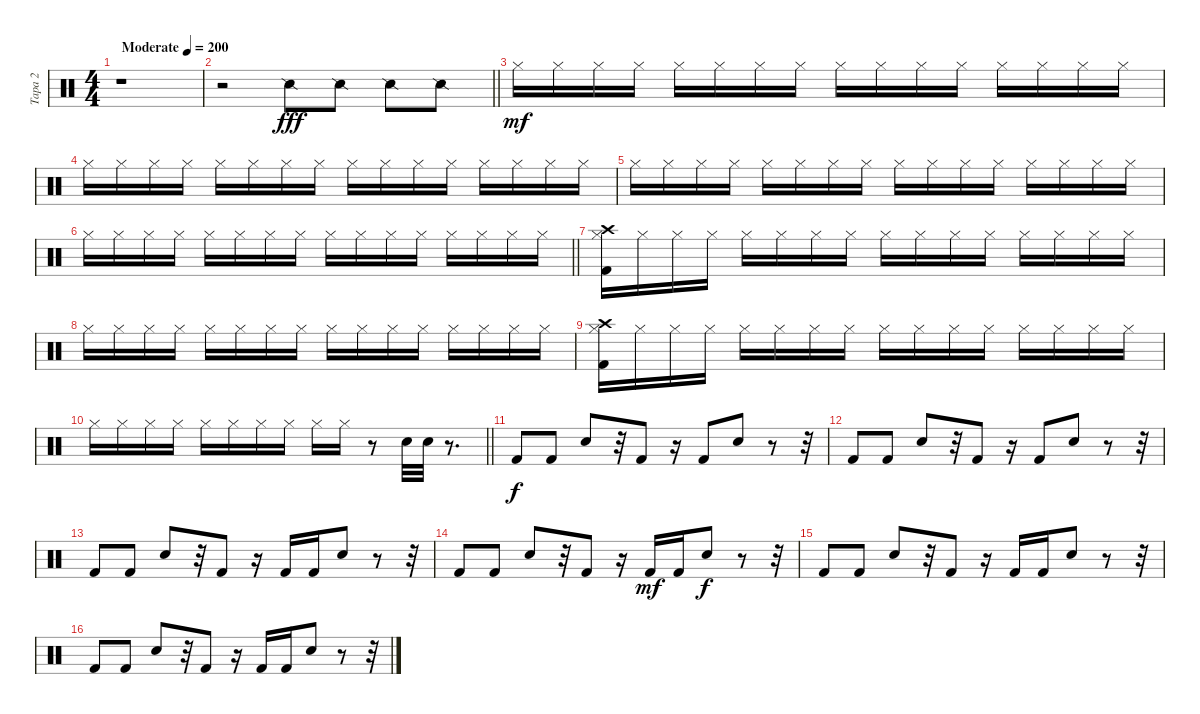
\track ("Tapa 2" "Tapa 2") {instrument percussion}
\staff {score}
\articulation defaults
\ts (4 4)
\tempo (200 "Moderate")
\clef neutral
\ks c
r.1{dy fff} |
\barLineRight lightlight
r.2 "Snare (side stick) 2".8 "Snare (side stick) 2".8 "Snare (side stick) 2".8 "Snare (side stick) 2".8 |
"Hi-Hat (closed)".16{dy mf} "Hi-Hat (closed)".16 "Hi-Hat (closed)".16 "Hi-Hat (closed)".16 "Hi-Hat (closed)".16 "Hi-Hat (closed)".16 "Hi-Hat (closed)".16 "Hi-Hat (closed)".16 "Hi-Hat (closed)".16 "Hi-Hat (closed)".16 "Hi-Hat (closed)".16 "Hi-Hat (closed)".16 "Hi-Hat (closed)".16 "Hi-Hat (closed)".16 "Hi-Hat (closed)".16 "Hi-Hat (closed)".16 |
"Hi-Hat (closed)".16 "Hi-Hat (closed)".16 "Hi-Hat (closed)".16 "Hi-Hat (closed)".16 "Hi-Hat (closed)".16 "Hi-Hat (closed)".16 "Hi-Hat (closed)".16 "Hi-Hat (closed)".16 "Hi-Hat (closed)".16 "Hi-Hat (closed)".16 "Hi-Hat (closed)".16 "Hi-Hat (closed)".16 "Hi-Hat (closed)".16 "Hi-Hat (closed)".16 "Hi-Hat (closed)".16 "Hi-Hat (closed)".16 |
"Hi-Hat (closed)".16 "Hi-Hat (closed)".16 "Hi-Hat (closed)".16 "Hi-Hat (closed)".16 "Hi-Hat (closed)".16 "Hi-Hat (closed)".16 "Hi-Hat (closed)".16 "Hi-Hat (closed)".16 "Hi-Hat (closed)".16 "Hi-Hat (closed)".16 "Hi-Hat (closed)".16 "Hi-Hat (closed)".16 "Hi-Hat (closed)".16 "Hi-Hat (closed)".16 "Hi-Hat (closed)".16 "Hi-Hat (closed)".16 |
\barLineRight lightlight "Hi-Hat (closed)".16 "Hi-Hat (closed)".16 "Hi-Hat (closed)".16 "Hi-Hat (closed)".16 "Hi-Hat (closed)".16 "Hi-Hat (closed)".16 "Hi-Hat (closed)".16 "Hi-Hat (closed)".16 "Hi-Hat (closed)".16 "Hi-Hat (closed)".16 "Hi-Hat (closed)".16 "Hi-Hat (closed)".16 "Hi-Hat (closed)".16 "Hi-Hat (closed)".16 "Hi-Hat (closed)".16 "Hi-Hat (closed)".16
|
("Hi-Hat (closed)" "Kick (hit) 2" "Crash high (hit)").16 "Hi-Hat (closed)".16 "Hi-Hat (closed)".16 "Hi-Hat (closed)".16 "Hi-Hat (closed)".16 "Hi-Hat (closed)".16 "Hi-Hat (closed)".16 "Hi-Hat (closed)".16 "Hi-Hat (closed)".16 "Hi-Hat (closed)".16 "Hi-Hat (closed)".16 "Hi-Hat (closed)".16 "Hi-Hat (closed)".16 "Hi-Hat (closed)".16 "Hi-Hat (closed)".16 "Hi-Hat (closed)".16 |
"Hi-Hat (closed)".16 "Hi-Hat (closed)".16 "Hi-Hat (closed)".16 "Hi-Hat (closed)".16 "Hi-Hat (closed)".16 "Hi-Hat (closed)".16 "Hi-Hat (closed)".16 "Hi-Hat (closed)".16 "Hi-Hat (closed)".16 "Hi-Hat (closed)".16 "Hi-Hat (closed)".16 "Hi-Hat (closed)".16 "Hi-Hat (closed)".16 "Hi-Hat (closed)".16 "Hi-Hat (closed)".16 "Hi-Hat (closed)".16 |
("Hi-Hat (closed)" "Crash high (hit)" "Kick (hit) 2").16 "Hi-Hat (closed)".16 "Hi-Hat (closed)".16 "Hi-Hat (closed)".16 "Hi-Hat (closed)".16 "Hi-Hat (closed)".16 "Hi-Hat (closed)".16 "Hi-Hat (closed)".16 "Hi-Hat (closed)".16 "Hi-Hat (closed)".16 "Hi-Hat (closed)".16 "Hi-Hat (closed)".16 "Hi-Hat (closed)".16 "Hi-Hat (closed)".16 "Hi-Hat (closed)".16 "Hi-Hat (closed)".16 |
\barLineRight lightlight "Hi-Hat (closed)".16 "Hi-Hat (closed)".16 "Hi-Hat (closed)".16 "Hi-Hat (closed)".16 "Hi-Hat (closed)".16 "Hi-Hat (closed)".16 "Hi-Hat (closed)".16 "Hi-Hat (closed)".16 "Hi-Hat (closed)".16 "Hi-Hat (closed)".16
r.8 "Snare (hit) 2".32 "Snare (hit) 2".32 r.8{d} |
"Kick (hit) 2".8{dy f} "Kick (hit) 2".8 "Snare (hit) 2".8 r.32 "Kick (hit) 2".8 r.16 "Kick (hit) 2".8 "Snare (hit) 2".8 r.8 r.32 |
"Kick (hit) 2".8 "Kick (hit) 2".8 "Snare (hit) 2".8 r.32 "Kick (hit) 2".8 r.16 "Kick (hit) 2".8 "Snare (hit) 2".8 r.8 r.32 |
"Kick (hit) 2".8 "Kick (hit) 2".8 "Snare (hit) 2".8 r.32 "Kick (hit) 2".8 r.16 "Kick (hit) 2".16 "Kick (hit) 2".16 "Snare (hit) 2".8 r.8 r.32 |
"Kick (hit) 2".8 "Kick (hit) 2".8 "Snare (hit) 2".8 r.32 "Kick (hit) 2".8 r.16 "Kick (hit) 2".16{dy mf} "Kick (hit) 2".16 "Snare (hit) 2".8{dy f} r.8 r.32 |
"Kick (hit) 2".8 "Kick (hit) 2".8 "Snare (hit) 2".8 r.32 "Kick (hit) 2".8 r.16 "Kick (hit) 2".16 "Kick (hit) 2".16 "Snare (hit) 2".8 r.8 r.32 |
"Kick (hit) 2".8 "Kick (hit) 2".8 "Snare (hit) 2".8 r.32 "Kick (hit) 2".8 r.16 "Kick (hit) 2".16 "Kick (hit) 2".16 "Snare (hit) 2".8 r.8 r.32
